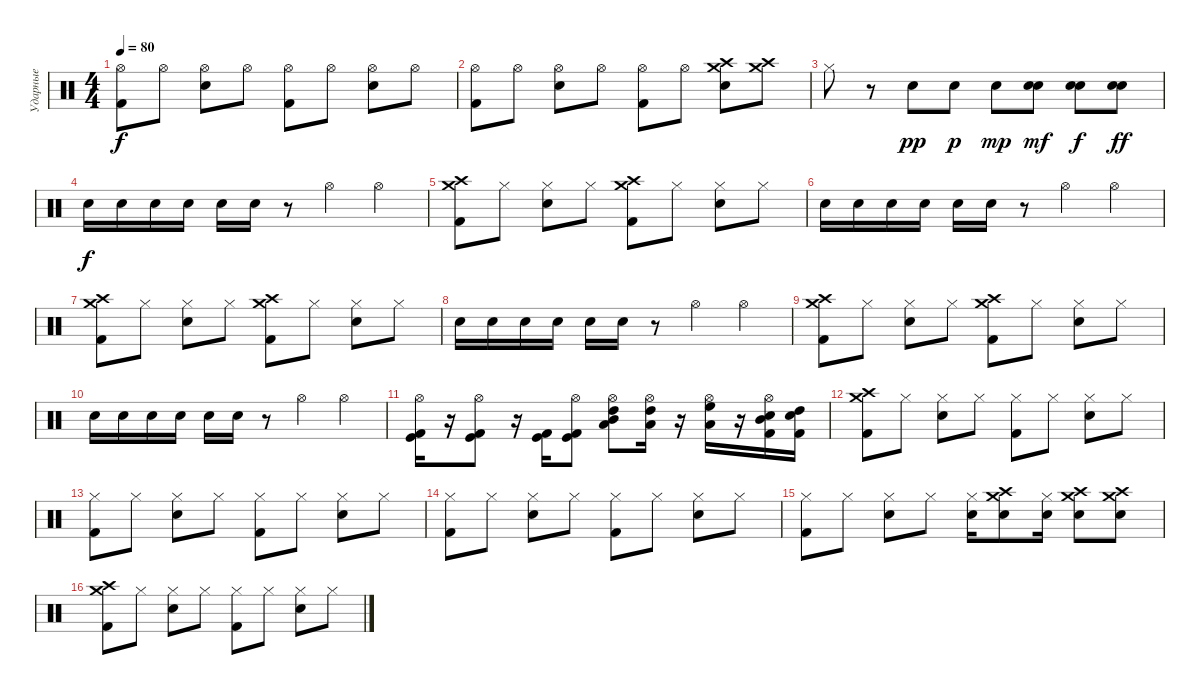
\track ("Ударные" "Ударные") {instrument percussion}
\staff {score}
\articulation defaults
\ts (4 4)
\tempo 80
\clef neutral
\ks c
("Hi-Hat (open)" "Kick (hit) 2").8{dy f} "Hi-Hat (open)".8 ("Hi-Hat (open)" "Snare (hit) 2").8 "Hi-Hat (open)".8 ("Hi-Hat (open)" "Kick (hit) 2").8 "Hi-Hat (open)".8 ("Hi-Hat (open)" "Snare (hit) 2").8 "Hi-Hat (open)".8 |
("Hi-Hat (open)" "Kick (hit) 2").8 "Hi-Hat (open)".8 ("Hi-Hat (open)" "Snare (hit) 2").8 "Hi-Hat (open)".8 ("Hi-Hat (open)" "Kick (hit) 2").8 "Hi-Hat (open)".8 ("Crash high (hit)" "Snare (hit) 2" "Crash medium (hit)").8 ("Crash medium (hit)" "Crash high (hit)").8 |
"Hi-Hat (closed)".8 r.8 "Snare (hit) 2".8{dy pp} "Snare (hit) 2".8{dy p} "Snare (hit) 2".8{dy mp} ("Electric Snare (hit)" "Snare (hit) 2").8{dy mf} ("Electric Snare (hit)" "Snare (hit) 2").8{dy f} ("Electric Snare (hit)" "Snare (hit) 2").8{dy ff} |
"Snare (hit) 2".16{dy f} "Snare (hit) 2".16 "Snare (hit) 2".16 "Snare (hit) 2".16 "Snare (hit) 2".16 "Snare (hit) 2".16 r.8 "Hi-Hat (open)".4 "Hi-Hat (open)".4 |
("Crash high (hit)" "Crash medium (hit)" "Kick (hit) 2").8 "Hi-Hat (closed)".8 ("Hi-Hat (closed)" "Snare (hit) 2").8 "Hi-Hat (closed)".8 ("Crash high (hit)" "Crash medium (hit)" "Kick (hit) 2").8 "Hi-Hat (closed)".8 ("Hi-Hat (closed)" "Snare (hit) 2").8 "Hi-Hat (closed)".8 |
"Snare (hit) 2".16 "Snare (hit) 2".16 "Snare (hit) 2".16 "Snare (hit) 2".16 "Snare (hit) 2".16 "Snare (hit) 2".16 r.8 "Hi-Hat (open)".4 "Hi-Hat (open)".4 |
("Crash high (hit)" "Crash medium (hit)" "Kick (hit) 2").8 "Hi-Hat (closed)".8 ("Hi-Hat (closed)" "Snare (hit) 2").8 "Hi-Hat (closed)".8 ("Crash high (hit)" "Crash medium (hit)" "Kick (hit) 2").8 "Hi-Hat (closed)".8 ("Hi-Hat (closed)" "Snare (hit) 2").8 "Hi-Hat (closed)".8 |
"Snare (hit) 2".16 "Snare (hit) 2".16 "Snare (hit) 2".16 "Snare (hit) 2".16 "Snare (hit) 2".16 "Snare (hit) 2".16 r.8 "Hi-Hat (open)".4 "Hi-Hat (open)".4 |
("Crash high (hit)" "Crash medium (hit)" "Kick (hit) 2").8 "Hi-Hat (closed)".8 ("Hi-Hat (closed)" "Snare (hit) 2").8 "Hi-Hat (closed)".8 ("Crash high (hit)" "Crash medium (hit)" "Kick (hit) 2").8 "Hi-Hat (closed)".8 ("Hi-Hat (closed)" "Snare (hit) 2").8 "Hi-Hat (closed)".8 |
"Snare (hit) 2".16 "Snare (hit) 2".16 "Snare (hit) 2".16 "Snare (hit) 2".16 "Snare (hit) 2".16 "Snare (hit) 2".16 r.8 "Hi-Hat (open)".4 "Hi-Hat (open)".4 |
("Hi-Hat (open)" "Kick (hit)" "Kick (hit) 2").16 r.16 ("Hi-Hat (open)" "Kick (hit)" "Kick (hit) 2").8 r.16 ("Kick (hit)" "Kick (hit) 2").16 ("Hi-Hat (open)" "Kick (hit)" "Kick (hit) 2").8 ("Hi-Hat (open)" "Mid Tom (hit)" "Low Floor Tom (hit)" "High Tom (hit)").8 ("Hi-Hat (open)" "Low Floor Tom (hit)" "High Tom (hit)").16 r.16 ("Hi-Hat (open)" "High Floor Tom (hit)" "Low Floor Tom (hit)").16 r.16 ("Hi-Hat (open)" "Mid Tom (hit)" "Snare (hit) 2" "Kick (hit) 2").16 ("High Tom (hit)" "Snare (hit) 2" "Kick (hit) 2").16 |
("Crash high (hit)" "Crash medium (hit)" "Kick (hit) 2").8 "Hi-Hat (closed)".8 ("Hi-Hat (closed)" "Snare (hit) 2").8 "Hi-Hat (closed)".8 ("Hi-Hat (closed)" "Kick (hit) 2").8 "Hi-Hat (closed)".8 ("Hi-Hat (closed)" "Snare (hit) 2").8 "Hi-Hat (closed)".8 |
("Hi-Hat (closed)" "Kick (hit) 2").8 "Hi-Hat (closed)".8 ("Hi-Hat (closed)" "Snare (hit) 2").8 "Hi-Hat (closed)".8 ("Hi-Hat (closed)" "Kick (hit) 2").8 "Hi-Hat (closed)".8 ("Hi-Hat (closed)" "Snare (hit) 2").8 "Hi-Hat (closed)".8 |
("Hi-Hat (closed)" "Kick (hit) 2").8 "Hi-Hat (closed)".8 ("Hi-Hat (closed)" "Snare (hit) 2").8 "Hi-Hat (closed)".8 ("Hi-Hat (closed)" "Kick (hit) 2").8 "Hi-Hat (closed)".8 ("Hi-Hat (closed)" "Snare (hit) 2").8 "Hi-Hat (closed)".8 |
("Hi-Hat (closed)" "Kick (hit) 2").8 "Hi-Hat (closed)".8 ("Hi-Hat (closed)" "Snare (hit) 2").8 "Hi-Hat (closed)".8 ("Hi-Hat (closed)" "Snare (hit) 2").16 ("Crash high (hit)" "Crash medium (hit)" "Snare (hit) 2").8 ("Hi-Hat (closed)" "Snare (hit) 2").16 ("Crash high (hit)" "Snare (hit) 2" "Crash medium (hit)").8 ("Crash high (hit)" "Crash medium (hit)" "Snare (hit) 2").8 |
("Crash high (hit)" "Crash medium (hit)" "Kick (hit) 2").8 "Hi-Hat (closed)".8 ("Hi-Hat (closed)" "Snare (hit) 2").8 "Hi-Hat (closed)".8 ("Hi-Hat (closed)" "Kick (hit) 2").8 "Hi-Hat (closed)".8 ("Hi-Hat (closed)" "Snare (hit) 2").8 "Hi-Hat (closed)".8
